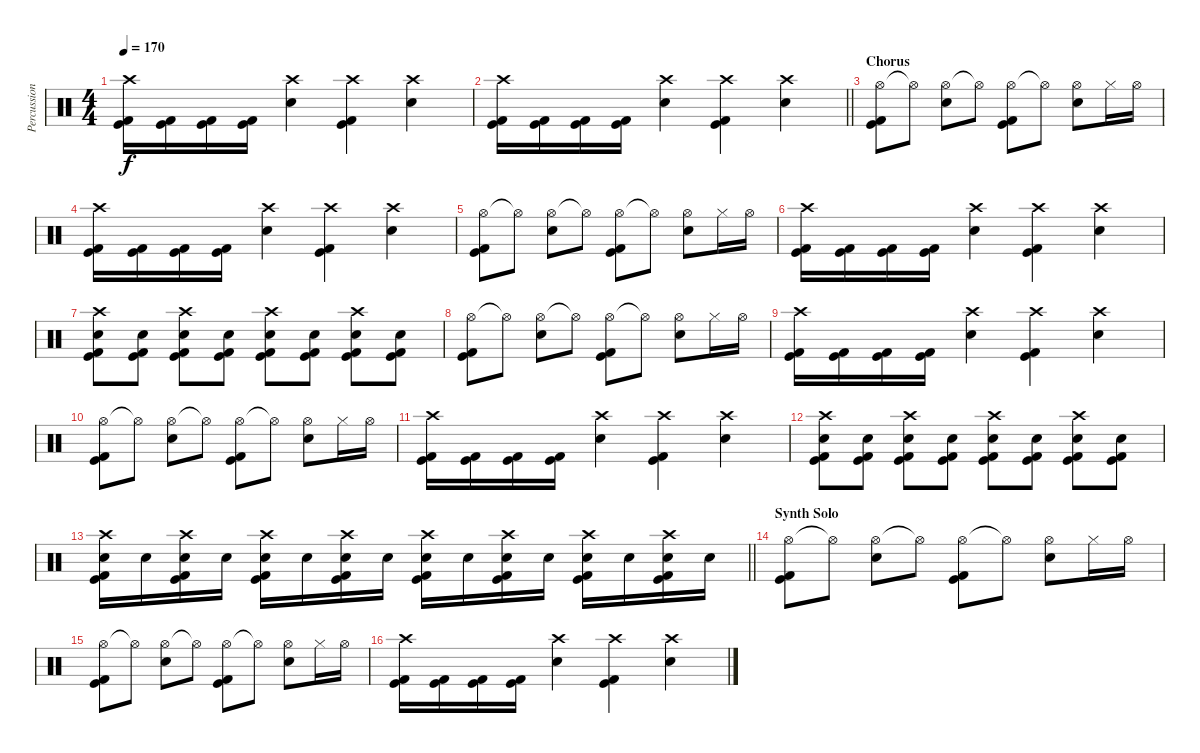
\track ("Percussion" "Percussion") {instrument percussion}
\staff {score}
\articulation defaults
\ts (4 4)
\tempo 170
\clef neutral
\ks c
("Crash high (hit)" "Kick (hit) 2" "Kick (hit)").16{dy f} ("Kick (hit) 2" "Kick (hit)").16 ("Kick (hit) 2" "Kick (hit)").16 ("Kick (hit) 2" "Kick (hit)").16 ("Crash high (hit)" "Electric Snare (hit)").4 ("Crash high (hit)" "Kick (hit) 2" "Kick (hit)").4 ("Crash high (hit)" "Electric Snare (hit)").4 |
\barLineRight lightlight
("Crash high (hit)" "Kick (hit) 2" "Kick (hit)").16 ("Kick (hit) 2" "Kick (hit)").16 ("Kick (hit) 2" "Kick (hit)").16 ("Kick (hit) 2" "Kick (hit)").16 ("Crash high (hit)" "Electric Snare (hit)").4 ("Crash high (hit)" "Kick (hit) 2" "Kick (hit)").4 ("Crash high (hit)" "Electric Snare (hit)").4 |
\section ("" "Chorus")
("Hi-Hat (open)" "Kick (hit) 2" "Kick (hit)").8 "Hi-Hat (open)"{t}.8 ("Hi-Hat (open)" "Electric Snare (hit)").8 "Hi-Hat (open)"{t}.8 ("Hi-Hat (open)" "Kick (hit) 2" "Kick (hit)").8 "Hi-Hat (open)"{t}.8 ("Hi-Hat (open)" "Electric Snare (hit)").8 "Hi-Hat (closed)".16 "Hi-Hat (open)".16 |
("Crash high (hit)" "Kick (hit) 2" "Kick (hit)").16 ("Kick (hit) 2" "Kick (hit)").16 ("Kick (hit) 2" "Kick (hit)").16 ("Kick (hit) 2" "Kick (hit)").16 ("Crash high (hit)" "Electric Snare (hit)").4 ("Crash high (hit)" "Kick (hit) 2" "Kick (hit)").4 ("Crash high (hit)" "Electric Snare (hit)").4 |
("Hi-Hat (open)" "Kick (hit) 2" "Kick (hit)").8 "Hi-Hat (open)"{t}.8 ("Hi-Hat (open)" "Electric Snare (hit)").8 "Hi-Hat (open)"{t}.8 ("Hi-Hat (open)" "Kick (hit) 2" "Kick (hit)").8 "Hi-Hat (open)"{t}.8 ("Hi-Hat (open)" "Electric Snare (hit)").8 "Hi-Hat (closed)".16 "Hi-Hat (open)".16 |
("Crash high (hit)" "Kick (hit) 2" "Kick (hit)").16 ("Kick (hit) 2" "Kick (hit)").16 ("Kick (hit) 2" "Kick (hit)").16 ("Kick (hit) 2" "Kick (hit)").16 ("Crash high (hit)" "Electric Snare (hit)").4 ("Crash high (hit)" "Kick (hit) 2" "Kick (hit)").4 ("Crash high (hit)" "Electric Snare (hit)").4 |
("Crash high (hit)" "Electric Snare (hit)" "Kick (hit) 2" "Kick (hit)").8 ("Electric Snare (hit)" "Kick (hit) 2" "Kick (hit)").8 ("Crash high (hit)" "Electric Snare (hit)" "Kick (hit) 2" "Kick (hit)").8 ("Electric Snare (hit)" "Kick (hit) 2" "Kick (hit)").8 ("Crash high (hit)" "Electric Snare (hit)" "Kick (hit) 2" "Kick (hit)").8 ("Electric Snare (hit)" "Kick (hit) 2" "Kick (hit)").8 ("Crash high (hit)" "Electric Snare (hit)" "Kick (hit) 2" "Kick (hit)").8 ("Electric Snare (hit)" "Kick (hit) 2" "Kick (hit)").8 |
("Hi-Hat (open)" "Kick (hit) 2" "Kick (hit)").8 "Hi-Hat (open)"{t}.8 ("Hi-Hat (open)" "Electric Snare (hit)").8 "Hi-Hat (open)"{t}.8 ("Hi-Hat (open)" "Kick (hit) 2" "Kick (hit)").8 "Hi-Hat (open)"{t}.8 ("Hi-Hat (open)" "Electric Snare (hit)").8 "Hi-Hat (closed)".16 "Hi-Hat (open)".16 |
("Crash high (hit)" "Kick (hit) 2" "Kick (hit)").16 ("Kick (hit) 2" "Kick (hit)").16 ("Kick (hit) 2" "Kick (hit)").16 ("Kick (hit) 2" "Kick (hit)").16 ("Crash high (hit)" "Electric Snare (hit)").4 ("Crash high (hit)" "Kick (hit) 2" "Kick (hit)").4 ("Crash high (hit)" "Electric Snare (hit)").4 |
("Hi-Hat (open)" "Kick (hit) 2" "Kick (hit)").8 "Hi-Hat (open)"{t}.8 ("Hi-Hat (open)" "Electric Snare (hit)").8 "Hi-Hat (open)"{t}.8 ("Hi-Hat (open)" "Kick (hit) 2" "Kick (hit)").8 "Hi-Hat (open)"{t}.8 ("Hi-Hat (open)" "Electric Snare (hit)").8 "Hi-Hat (closed)".16 "Hi-Hat (open)".16 |
("Crash high (hit)" "Kick (hit) 2" "Kick (hit)").16 ("Kick (hit) 2" "Kick (hit)").16 ("Kick (hit) 2" "Kick (hit)").16 ("Kick (hit) 2" "Kick (hit)").16 ("Crash high (hit)" "Electric Snare (hit)").4 ("Crash high (hit)" "Kick (hit) 2" "Kick (hit)").4 ("Crash high (hit)" "Electric Snare (hit)").4 |
("Crash high (hit)" "Electric Snare (hit)" "Kick (hit) 2" "Kick (hit)").8 ("Electric Snare (hit)" "Kick (hit) 2" "Kick (hit)").8 ("Crash high (hit)" "Electric Snare (hit)" "Kick (hit) 2" "Kick (hit)").8 ("Electric Snare (hit)" "Kick (hit) 2" "Kick (hit)").8 ("Crash high (hit)" "Electric Snare (hit)" "Kick (hit) 2" "Kick (hit)").8 ("Electric Snare (hit)" "Kick (hit) 2" "Kick (hit)").8 ("Crash high (hit)" "Electric Snare (hit)" "Kick (hit) 2" "Kick (hit)").8 ("Electric Snare (hit)" "Kick (hit) 2" "Kick (hit)").8 |
\barLineRight lightlight
("Crash high (hit)" "Electric Snare (hit)" "Kick (hit) 2" "Kick (hit)").16 "Electric Snare (hit)".16 ("Crash high (hit)" "Electric Snare (hit)" "Kick (hit) 2" "Kick (hit)").16 "Electric Snare (hit)".16 ("Crash high (hit)" "Electric Snare (hit)" "Kick (hit) 2" "Kick (hit)").16 "Electric Snare (hit)".16 ("Crash high (hit)" "Electric Snare (hit)" "Kick (hit) 2" "Kick (hit)").16 "Electric Snare (hit)".16 ("Crash high (hit)" "Electric Snare (hit)" "Kick (hit) 2" "Kick (hit)").16 "Electric Snare (hit)".16 ("Crash high (hit)" "Electric Snare (hit)" "Kick (hit) 2" "Kick (hit)").16 "Electric Snare (hit)".16 ("Crash high (hit)" "Electric Snare (hit)" "Kick (hit) 2" "Kick (hit)").16 "Electric Snare (hit)".16 ("Crash high (hit)" "Electric Snare (hit)" "Kick (hit) 2" "Kick (hit)").16 "Electric Snare (hit)".16 |
\section ("" "Synth Solo")
("Hi-Hat (open)" "Kick (hit) 2" "Kick (hit)").8 "Hi-Hat (open)"{t}.8 ("Hi-Hat (open)" "Electric Snare (hit)").8 "Hi-Hat (open)"{t}.8 ("Hi-Hat (open)" "Kick (hit) 2" "Kick (hit)").8 "Hi-Hat (open)"{t}.8 ("Hi-Hat (open)" "Electric Snare (hit)").8 "Hi-Hat (closed)".16 "Hi-Hat (open)".16 |
("Hi-Hat (open)" "Kick (hit) 2" "Kick (hit)").8 "Hi-Hat (open)"{t}.8 ("Hi-Hat (open)" "Electric Snare (hit)").8 "Hi-Hat (open)"{t}.8 ("Hi-Hat (open)" "Kick (hit) 2" "Kick (hit)").8 "Hi-Hat (open)"{t}.8 ("Hi-Hat (open)" "Electric Snare (hit)").8 "Hi-Hat (closed)".16 "Hi-Hat (open)".16 |
("Crash high (hit)" "Kick (hit) 2" "Kick (hit)").16 ("Kick (hit) 2" "Kick (hit)").16 ("Kick (hit) 2" "Kick (hit)").16 ("Kick (hit) 2" "Kick (hit)").16 ("Crash high (hit)" "Electric Snare (hit)").4 ("Crash high (hit)" "Kick (hit) 2" "Kick (hit)").4 ("Crash high (hit)" "Electric Snare (hit)").4
